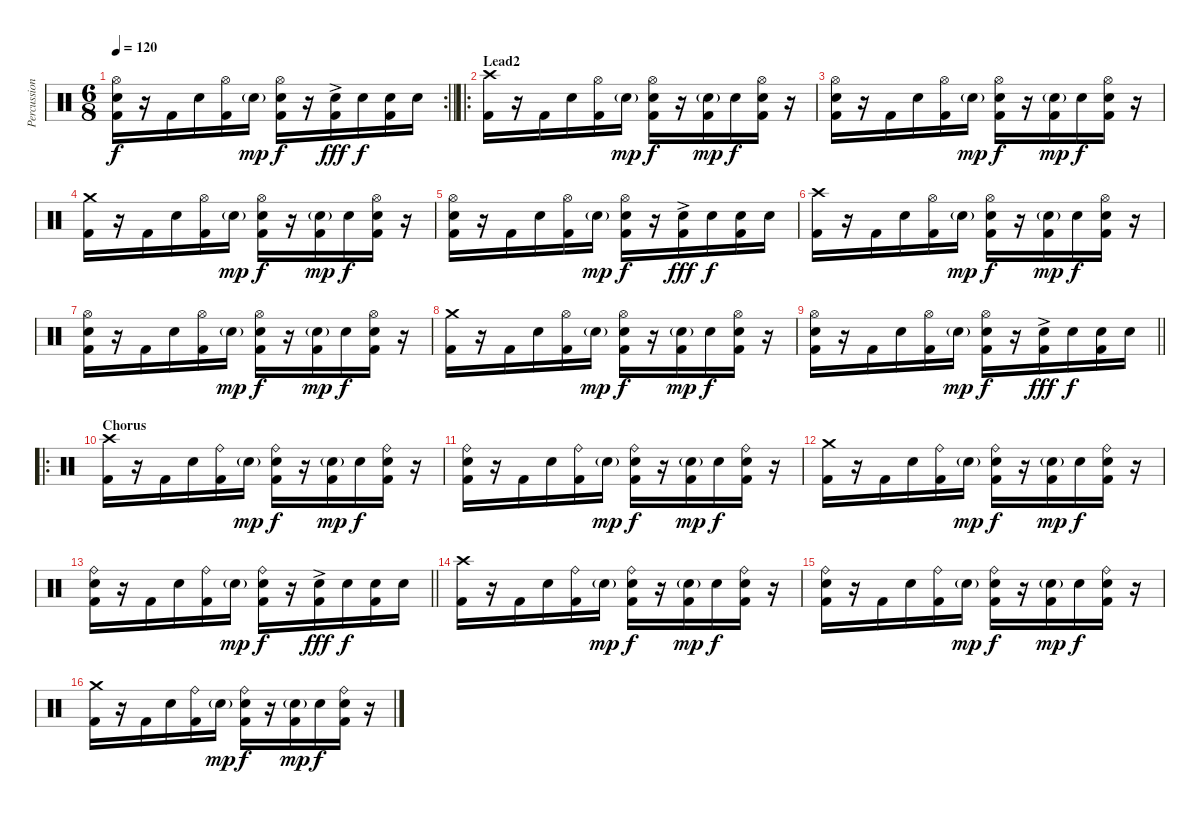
\track ("Percussion" "Percussion") {instrument percussion}
\staff {score}
\articulation defaults
\rc 2
\ts (6 8)
\tempo 120
\clef neutral
\barLineRight lightlight
\ks c
("Hi-Hat (open)" "Snare (hit) 2" "Kick (hit) 2").16{dy f} r.16 "Kick (hit) 2".16 "Snare (hit) 2".16 ("Hi-Hat (open)" "Kick (hit) 2").16 "Snare (hit) 2"{g}.16{dy mp} ("Hi-Hat (open)" "Snare (hit) 2" "Kick (hit) 2").16{dy f} r.16 ("Snare (hit) 2"{ac} "Kick (hit) 2").16{dy fff} "Snare (hit) 2".16{dy f} ("Snare (hit) 2" "Kick (hit) 2").16 "Snare (hit) 2".16 |
\ro
\section ("" "Lead2")
("Crash high (hit)" "Kick (hit) 2").16 r.16 "Kick (hit) 2".16 "Snare (hit) 2".16 ("Hi-Hat (open)" "Kick (hit) 2").16 "Snare (hit) 2"{g}.16{dy mp} ("Hi-Hat (open)" "Snare (hit) 2" "Kick (hit) 2").16{dy f} r.16 ("Snare (hit) 2"{g} "Kick (hit) 2").16{dy mp} "Snare (hit) 2".16{dy f} ("Hi-Hat (open)" "Snare (hit) 2" "Kick (hit) 2").16 r.16 |
("Hi-Hat (open)" "Snare (hit) 2" "Kick (hit) 2").16 r.16 "Kick (hit) 2".16 "Snare (hit) 2".16 ("Hi-Hat (open)" "Kick (hit) 2").16 "Snare (hit) 2"{g}.16{dy mp} ("Hi-Hat (open)" "Snare (hit) 2" "Kick (hit) 2").16{dy f} r.16 ("Snare (hit) 2"{g} "Kick (hit) 2").16{dy mp} "Snare (hit) 2".16{dy f} ("Hi-Hat (open)" "Snare (hit) 2" "Kick (hit) 2").16 r.16 |
("Crash medium (hit)" "Kick (hit) 2").16 r.16 "Kick (hit) 2".16 "Snare (hit) 2".16 ("Hi-Hat (open)" "Kick (hit) 2").16 "Snare (hit) 2"{g}.16{dy mp} ("Hi-Hat (open)" "Snare (hit) 2" "Kick (hit) 2").16{dy f} r.16 ("Snare (hit) 2"{g} "Kick (hit) 2").16{dy mp} "Snare (hit) 2".16{dy f} ("Hi-Hat (open)" "Snare (hit) 2" "Kick (hit) 2").16 r.16 |
("Hi-Hat (open)" "Snare (hit) 2" "Kick (hit) 2").16 r.16 "Kick (hit) 2".16 "Snare (hit) 2".16 ("Hi-Hat (open)" "Kick (hit) 2").16 "Snare (hit) 2"{g}.16{dy mp} ("Hi-Hat (open)" "Snare (hit) 2" "Kick (hit) 2").16{dy f} r.16 ("Snare (hit) 2"{ac} "Kick (hit) 2").16{dy fff} "Snare (hit) 2".16{dy f} ("Snare (hit) 2" "Kick (hit) 2").16 "Snare (hit) 2".16 |
("Crash high (hit)" "Kick (hit) 2").16 r.16 "Kick (hit) 2".16 "Snare (hit) 2".16 ("Hi-Hat (open)" "Kick (hit) 2").16 "Snare (hit) 2"{g}.16{dy mp} ("Hi-Hat (open)" "Snare (hit) 2" "Kick (hit) 2").16{dy f} r.16 ("Snare (hit) 2"{g} "Kick (hit) 2").16{dy mp} "Snare (hit) 2".16{dy f} ("Hi-Hat (open)" "Snare (hit) 2" "Kick (hit) 2").16 r.16 |
("Hi-Hat (open)" "Snare (hit) 2" "Kick (hit) 2").16 r.16 "Kick (hit) 2".16 "Snare (hit) 2".16 ("Hi-Hat (open)" "Kick (hit) 2").16 "Snare (hit) 2"{g}.16{dy mp} ("Hi-Hat (open)" "Snare (hit) 2" "Kick (hit) 2").16{dy f} r.16 ("Snare (hit) 2"{g} "Kick (hit) 2").16{dy mp} "Snare (hit) 2".16{dy f} ("Hi-Hat (open)" "Snare (hit) 2" "Kick (hit) 2").16 r.16 |
("Crash medium (hit)" "Kick (hit) 2").16 r.16 "Kick (hit) 2".16 "Snare (hit) 2".16 ("Hi-Hat (open)" "Kick (hit) 2").16 "Snare (hit) 2"{g}.16{dy mp} ("Hi-Hat (open)" "Snare (hit) 2" "Kick (hit) 2").16{dy f} r.16 ("Snare (hit) 2"{g} "Kick (hit) 2").16{dy mp} "Snare (hit) 2".16{dy f} ("Hi-Hat (open)" "Snare (hit) 2" "Kick (hit) 2").16 r.16 |
\barLineRight lightlight
("Hi-Hat (open)" "Snare (hit) 2" "Kick (hit) 2").16 r.16 "Kick (hit) 2".16 "Snare (hit) 2".16 ("Hi-Hat (open)" "Kick (hit) 2").16 "Snare (hit) 2"{g}.16{dy mp} ("Hi-Hat (open)" "Snare (hit) 2" "Kick (hit) 2").16{dy f} r.16 ("Snare (hit) 2"{ac} "Kick (hit) 2").16{dy fff} "Snare (hit) 2".16{dy f} ("Snare (hit) 2" "Kick (hit) 2").16 "Snare (hit) 2".16 |
\ro
\section ("" "Chorus")
("Crash high (hit)" "Kick (hit) 2").16 r.16 "Kick (hit) 2".16 "Snare (hit) 2".16 ("Ride (bell)" "Kick (hit) 2").16 "Snare (hit) 2"{g}.16{dy mp} ("Ride (bell)" "Snare (hit) 2" "Kick (hit) 2").16{dy f} r.16 ("Snare (hit) 2"{g} "Kick (hit) 2").16{dy mp} "Snare (hit) 2".16{dy f} ("Ride (bell)" "Snare (hit) 2" "Kick (hit) 2").16 r.16 |
("Ride (bell)" "Snare (hit) 2" "Kick (hit) 2").16 r.16 "Kick (hit) 2".16 "Snare (hit) 2".16 ("Ride (bell)" "Kick (hit) 2").16 "Snare (hit) 2"{g}.16{dy mp} ("Ride (bell)" "Snare (hit) 2" "Kick (hit) 2").16{dy f} r.16 ("Snare (hit) 2"{g} "Kick (hit) 2").16{dy mp} "Snare (hit) 2".16{dy f} ("Ride (bell)" "Snare (hit) 2" "Kick (hit) 2").16 r.16 |
("Crash medium (hit)" "Kick (hit) 2").16 r.16 "Kick (hit) 2".16 "Snare (hit) 2".16 ("Ride (bell)" "Kick (hit) 2").16 "Snare (hit) 2"{g}.16{dy mp} ("Ride (bell)" "Snare (hit) 2" "Kick (hit) 2").16{dy f} r.16 ("Snare (hit) 2"{g} "Kick (hit) 2").16{dy mp} "Snare (hit) 2".16{dy f} ("Ride (bell)" "Snare (hit) 2" "Kick (hit) 2").16 r.16 |
\barLineRight lightlight
("Ride (bell)" "Snare (hit) 2" "Kick (hit) 2").16 r.16 "Kick (hit) 2".16 "Snare (hit) 2".16 ("Ride (bell)" "Kick (hit) 2").16 "Snare (hit) 2"{g}.16{dy mp} ("Ride (bell)" "Snare (hit) 2" "Kick (hit) 2").16{dy f} r.16 ("Snare (hit) 2"{ac} "Kick (hit) 2").16{dy fff} "Snare (hit) 2".16{dy f} ("Snare (hit) 2" "Kick (hit) 2").16 "Snare (hit) 2".16 |
("Crash high (hit)" "Kick (hit) 2").16 r.16 "Kick (hit) 2".16 "Snare (hit) 2".16 ("Ride (bell)" "Kick (hit) 2").16 "Snare (hit) 2"{g}.16{dy mp} ("Ride (bell)" "Snare (hit) 2" "Kick (hit) 2").16{dy f} r.16 ("Snare (hit) 2"{g} "Kick (hit) 2").16{dy mp} "Snare (hit) 2".16{dy f} ("Ride (bell)" "Snare (hit) 2" "Kick (hit) 2").16 r.16 |
("Ride (bell)" "Snare (hit) 2" "Kick (hit) 2").16 r.16 "Kick (hit) 2".16 "Snare (hit) 2".16 ("Ride (bell)" "Kick (hit) 2").16 "Snare (hit) 2"{g}.16{dy mp} ("Ride (bell)" "Snare (hit) 2" "Kick (hit) 2").16{dy f} r.16 ("Snare (hit) 2"{g} "Kick (hit) 2").16{dy mp} "Snare (hit) 2".16{dy f} ("Ride (bell)" "Snare (hit) 2" "Kick (hit) 2").16 r.16 |
("Crash medium (hit)" "Kick (hit) 2").16 r.16 "Kick (hit) 2".16 "Snare (hit) 2".16 ("Ride (bell)" "Kick (hit) 2").16 "Snare (hit) 2"{g}.16{dy mp} ("Ride (bell)" "Snare (hit) 2" "Kick (hit) 2").16{dy f} r.16 ("Snare (hit) 2"{g} "Kick (hit) 2").16{dy mp} "Snare (hit) 2".16{dy f} ("Ride (bell)" "Snare (hit) 2" "Kick (hit) 2").16 r.16
